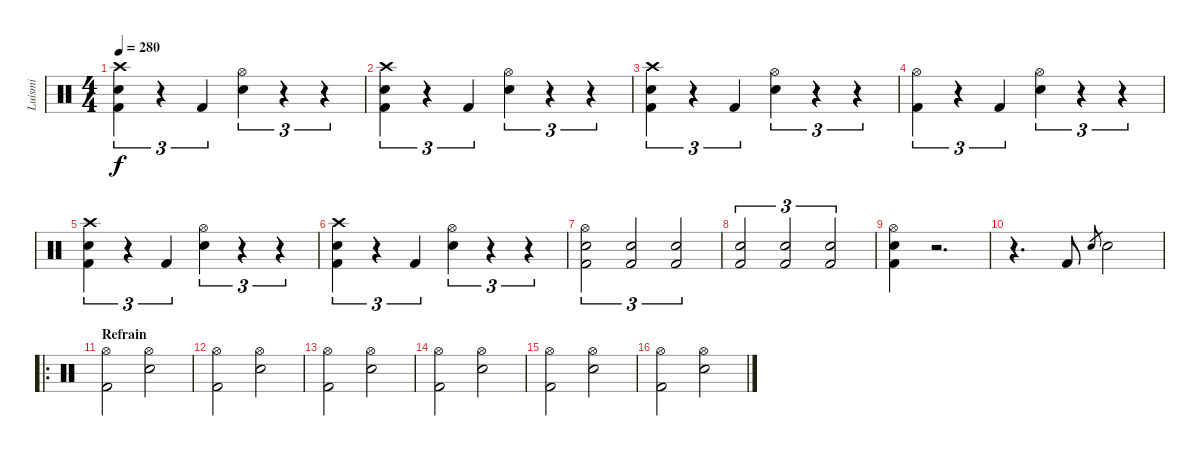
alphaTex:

\track ("Luismi" "Luismi") {instrument percussion}
\staff {score}
\articulation defaults
\ts (4 4)
\tempo 280
\clef neutral
\ks c
("Crash high (hit)" "Snare (hit) 2" "Kick (hit) 2").4{tu (3 2) dy f} r.4{tu (3 2)} "Kick (hit) 2".4{tu (3 2)} ("Hi-Hat (open)" "Snare (hit) 2").4{tu (3 2)} r.4{tu (3 2)} r.4{tu (3 2)} |
("Crash high (hit)" "Snare (hit) 2" "Kick (hit) 2").4{tu (3 2)} r.4{tu (3 2)} "Kick (hit) 2".4{tu (3 2)} ("Hi-Hat (open)" "Snare (hit) 2").4{tu (3 2)} r.4{tu (3 2)} r.4{tu (3 2)} |
("Crash high (hit)" "Snare (hit) 2" "Kick (hit) 2").4{tu (3 2)} r.4{tu (3 2)} "Kick (hit) 2".4{tu (3 2)} ("Hi-Hat (open)" "Snare (hit) 2").4{tu (3 2)} r.4{tu (3 2)} r.4{tu (3 2)} |
("Hi-Hat (open)" "Kick (hit) 2").4{tu (3 2)} r.4{tu (3 2)} "Kick (hit) 2".4{tu (3 2)} ("Hi-Hat (open)" "Snare (hit) 2").4{tu (3 2)} r.4{tu (3 2)} r.4{tu (3 2)} |
("Crash high (hit)" "Snare (hit) 2" "Kick (hit) 2").4{tu (3 2)} r.4{tu (3 2)} "Kick (hit) 2".4{tu (3 2)} ("Hi-Hat (open)" "Snare (hit) 2").4{tu (3 2)} r.4{tu (3 2)} r.4{tu (3 2)} |
("Crash high (hit)" "Snare (hit) 2" "Kick (hit) 2").4{tu (3 2)} r.4{tu (3 2)} "Kick (hit) 2".4{tu (3 2)} ("Hi-Hat (open)" "Snare (hit) 2").4{tu (3 2)} r.4{tu (3 2)} r.4{tu (3 2)} |
("Hi-Hat (open)" "Snare (hit) 2" "Kick (hit) 2").2{tu (3 2)} ("Snare (hit) 2" "Kick (hit) 2").2{tu (3 2)} ("Snare (hit) 2" "Kick (hit) 2").2{tu (3 2)} |
("Snare (hit) 2" "Kick (hit) 2").2{tu (3 2)} ("Snare (hit) 2" "Kick (hit) 2").2{tu (3 2)} ("Snare (hit) 2" "Kick (hit) 2").2{tu (3 2)} |
("Hi-Hat (open)" "Snare (hit) 2" "Kick (hit) 2").4 r.2{d} |
r.4{d} "Kick (hit) 2".8 "Snare (hit) 2".8{gr} "Snare (hit) 2".2 |
\ro
\section ("" "Refrain")
("Hi-Hat (open)" "Kick (hit) 2").2 ("Hi-Hat (open)" "Snare (hit) 2").2 |
("Hi-Hat (open)" "Kick (hit) 2").2 ("Hi-Hat (open)" "Snare (hit) 2").2 |
("Hi-Hat (open)" "Kick (hit) 2").2 ("Hi-Hat (open)" "Snare (hit) 2").2 |
("Hi-Hat (open)" "Kick (hit) 2").2 ("Hi-Hat (open)" "Snare (hit) 2").2 |
("Hi-Hat (open)" "Kick (hit) 2").2 ("Hi-Hat (open)" "Snare (hit) 2").2 |
("Hi-Hat (open)" "Kick (hit) 2").2 ("Hi-Hat (open)" "Snare (hit) 2").2
